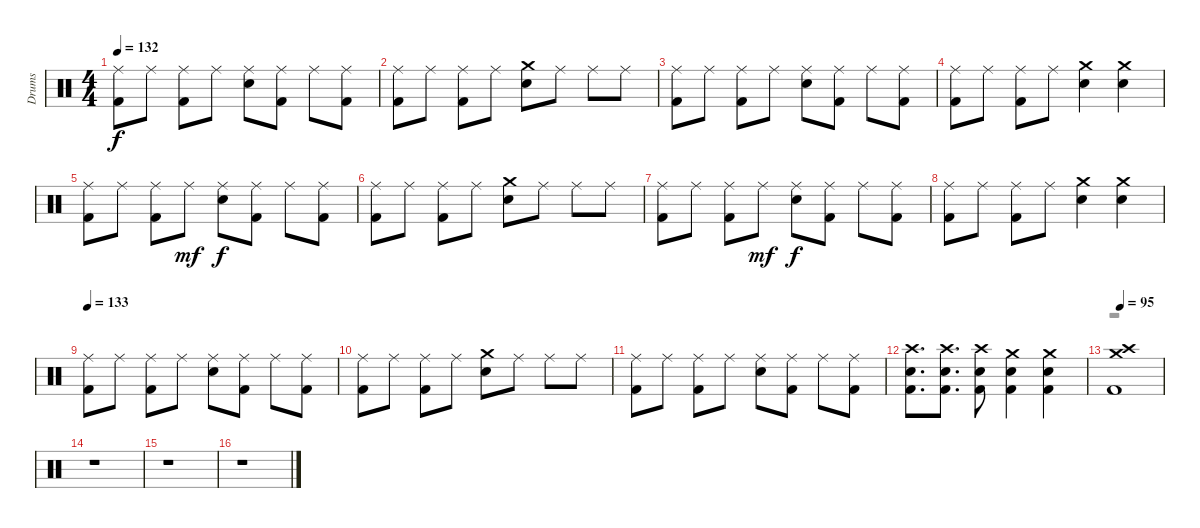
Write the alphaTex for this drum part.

\track ("Drums" "Drums") {instrument percussion}
\staff {score}
\articulation defaults
\voice
\ts (4 4)
\tempo 132
\clef neutral
\ks c
("Ride (middle)" "Kick (hit) 2").8{dy f} "Ride (middle)".8 ("Ride (middle)" "Kick (hit) 2").8 "Ride (middle)".8 ("Ride (middle)" "Snare (hit) 2").8 ("Ride (middle)" "Kick (hit) 2").8 "Ride (middle)".8 ("Ride (middle)" "Kick (hit) 2").8 |
("Ride (middle)" "Kick (hit) 2").8 "Ride (middle)".8 ("Ride (middle)" "Kick (hit) 2").8 "Ride (middle)".8 ("Crash medium (hit)" "Snare (hit) 2").8 "Ride (middle)".8 "Ride (middle)".8 "Ride (middle)".8 |
("Ride (middle)" "Kick (hit) 2").8 "Ride (middle)".8 ("Ride (middle)" "Kick (hit) 2").8 "Ride (middle)".8 ("Ride (middle)" "Snare (hit) 2").8 ("Ride (middle)" "Kick (hit) 2").8 "Ride (middle)".8 ("Ride (middle)" "Kick (hit) 2").8 |
("Ride (middle)" "Kick (hit) 2").8 "Ride (middle)".8 ("Ride (middle)" "Kick (hit) 2").8 "Ride (middle)".8 ("Crash medium (hit)" "Snare (hit) 2").4 ("Crash medium (hit)" "Snare (hit) 2").4 |
("Ride (middle)" "Kick (hit) 2").8 "Ride (middle)".8 ("Ride (middle)" "Kick (hit) 2").8 "Ride (middle)".8{dy mf} ("Ride (middle)" "Snare (hit) 2").8{dy f} ("Ride (middle)" "Kick (hit) 2").8 "Ride (middle)".8 ("Ride (middle)" "Kick (hit) 2").8 |
("Ride (middle)" "Kick (hit) 2").8 "Ride (middle)".8 ("Ride (middle)" "Kick (hit) 2").8 "Ride (middle)".8 ("Crash medium (hit)" "Snare (hit) 2").8 "Ride (middle)".8 "Ride (middle)".8 "Ride (middle)".8 |
("Ride (middle)" "Kick (hit) 2").8 "Ride (middle)".8 ("Ride (middle)" "Kick (hit) 2").8 "Ride (middle)".8{dy mf} ("Ride (middle)" "Snare (hit) 2").8{dy f} ("Ride (middle)" "Kick (hit) 2").8 "Ride (middle)".8 ("Ride (middle)" "Kick (hit) 2").8 |
("Ride (middle)" "Kick (hit) 2").8 "Ride (middle)".8 ("Ride (middle)" "Kick (hit) 2").8 "Ride (middle)".8 ("Crash medium (hit)" "Snare (hit) 2").4 ("Crash medium (hit)" "Snare (hit) 2").4 |
\tempo 133
("Ride (middle)" "Kick (hit) 2").8 "Ride (middle)".8 ("Ride (middle)" "Kick (hit) 2").8 "Ride (middle)".8 ("Ride (middle)" "Snare (hit) 2").8 ("Ride (middle)" "Kick (hit) 2").8 "Ride (middle)".8 ("Ride (middle)" "Kick (hit) 2").8 |
("Ride (middle)" "Kick (hit) 2").8 "Ride (middle)".8 ("Ride (middle)" "Kick (hit) 2").8 "Ride (middle)".8 ("Crash medium (hit)" "Snare (hit) 2").8 "Ride (middle)".8 "Ride (middle)".8 "Ride (middle)".8 |
("Ride (middle)" "Kick (hit) 2").8 "Ride (middle)".8 ("Ride (middle)" "Kick (hit) 2").8 "Ride (middle)".8 ("Ride (middle)" "Snare (hit) 2").8 ("Ride (middle)" "Kick (hit) 2").8 "Ride (middle)".8 ("Ride (middle)" "Kick (hit) 2").8 |
("Crash high (hit)" "Snare (hit) 2" "Kick (hit) 2").8{d} ("Crash high (hit)" "Snare (hit) 2" "Kick (hit) 2").8{d} ("Crash high (hit)" "Snare (hit) 2" "Kick (hit) 2").8 ("Crash medium (hit)" "Snare (hit) 2" "Kick (hit) 2").4 ("Crash medium (hit)" "Snare (hit) 2" "Kick (hit) 2").4 |
\tempo 95
("Crash high (hit)" "Crash medium (hit)" "Kick (hit) 2").1 |
r.1 |
r.1 |
r.1
\voice
\clef neutral
\ottava regular
\simile none
\ks c
|
|
|
|
|
|
|
|
|
|
|
|
r.1 |
r.1 |
r.1 |
